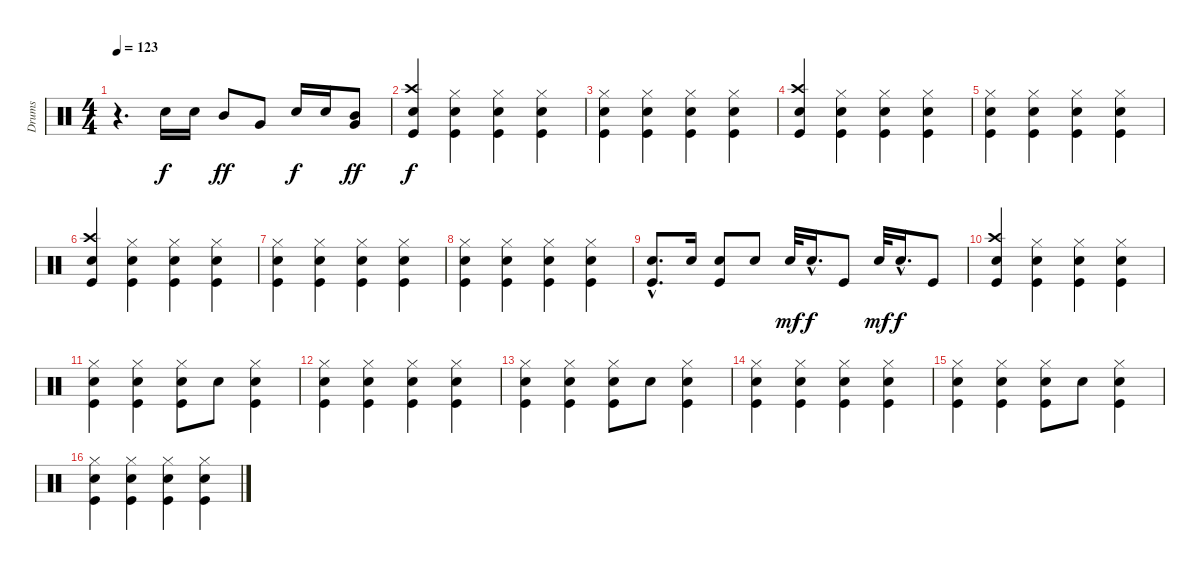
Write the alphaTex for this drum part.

\track ("Drums" "Drums") {instrument percussion}
\staff {score}
\articulation defaults
\ts (4 4)
\tempo 123
\clef neutral
\ks c
r.4{d dy f} "Electric Snare (hit)".16 "Electric Snare (hit)".16 "Mid Tom (hit)".8{dy ff} "Very Low Tom (hit)".8 "Electric Snare (hit)".16{dy f} "Electric Snare (hit)".16 ("Mid Tom (hit)" "Very Low Tom (hit)").8{dy ff} |
("Crash high (hit)" "Kick (hit)" "Electric Snare (hit)").4{dy f} ("Hi-Hat (closed)" "Kick (hit)" "Electric Snare (hit)").4 ("Hi-Hat (closed)" "Kick (hit)" "Electric Snare (hit)").4 ("Hi-Hat (closed)" "Kick (hit)" "Electric Snare (hit)").4 |
("Kick (hit)" "Electric Snare (hit)" "Hi-Hat (closed)").4 ("Kick (hit)" "Electric Snare (hit)" "Hi-Hat (closed)").4 ("Kick (hit)" "Electric Snare (hit)" "Hi-Hat (closed)").4 ("Kick (hit)" "Electric Snare (hit)" "Hi-Hat (closed)").4 |
("Crash high (hit)" "Kick (hit)" "Electric Snare (hit)").4 ("Hi-Hat (closed)" "Kick (hit)" "Electric Snare (hit)").4 ("Hi-Hat (closed)" "Kick (hit)" "Electric Snare (hit)").4 ("Hi-Hat (closed)" "Kick (hit)" "Electric Snare (hit)").4 |
("Kick (hit)" "Electric Snare (hit)" "Hi-Hat (closed)").4 ("Kick (hit)" "Electric Snare (hit)" "Hi-Hat (closed)").4 ("Kick (hit)" "Electric Snare (hit)" "Hi-Hat (closed)").4 ("Kick (hit)" "Electric Snare (hit)" "Hi-Hat (closed)").4 |
("Crash high (hit)" "Kick (hit)" "Electric Snare (hit)").4 ("Hi-Hat (closed)" "Kick (hit)" "Electric Snare (hit)").4 ("Hi-Hat (closed)" "Kick (hit)" "Electric Snare (hit)").4 ("Hi-Hat (closed)" "Kick (hit)" "Electric Snare (hit)").4 |
("Kick (hit)" "Electric Snare (hit)" "Hi-Hat (closed)").4 ("Kick (hit)" "Electric Snare (hit)" "Hi-Hat (closed)").4 ("Kick (hit)" "Electric Snare (hit)" "Hi-Hat (closed)").4 ("Kick (hit)" "Electric Snare (hit)" "Hi-Hat (closed)").4 |
("Kick (hit)" "Electric Snare (hit)" "Hi-Hat (closed)").4 ("Kick (hit)" "Electric Snare (hit)" "Hi-Hat (closed)").4 ("Kick (hit)" "Electric Snare (hit)" "Hi-Hat (closed)").4 ("Kick (hit)" "Electric Snare (hit)" "Hi-Hat (closed)").4 |
("Kick (hit)"{hac} "Electric Snare (hit)"{hac}).8{d} "Electric Snare (hit)".16 ("Kick (hit)" "Electric Snare (hit)").8 "Electric Snare (hit)".8 "Electric Snare (hit)".32{dy mf} "Electric Snare (hit)"{hac}.16{d dy f} "Kick (hit)".8 "Electric Snare (hit)".32{dy mf} "Electric Snare (hit)"{hac}.16{d dy f} "Kick (hit)".8 |
("Crash high (hit)" "Kick (hit)" "Electric Snare (hit)").4 ("Hi-Hat (closed)" "Kick (hit)" "Electric Snare (hit)").4 ("Hi-Hat (closed)" "Kick (hit)" "Electric Snare (hit)").4 ("Hi-Hat (closed)" "Kick (hit)" "Electric Snare (hit)").4 |
("Electric Snare (hit)" "Kick (hit)" "Hi-Hat (closed)").4 ("Kick (hit)" "Electric Snare (hit)" "Hi-Hat (closed)").4 ("Kick (hit)" "Electric Snare (hit)" "Hi-Hat (closed)").8 "Electric Snare (hit)".8 ("Kick (hit)" "Electric Snare (hit)" "Hi-Hat (closed)").4 |
("Kick (hit)" "Electric Snare (hit)" "Hi-Hat (closed)").4 ("Kick (hit)" "Electric Snare (hit)" "Hi-Hat (closed)").4 ("Kick (hit)" "Electric Snare (hit)" "Hi-Hat (closed)").4 ("Kick (hit)" "Electric Snare (hit)" "Hi-Hat (closed)").4 |
("Electric Snare (hit)" "Kick (hit)" "Hi-Hat (closed)").4 ("Kick (hit)" "Electric Snare (hit)" "Hi-Hat (closed)").4 ("Kick (hit)" "Electric Snare (hit)" "Hi-Hat (closed)").8 "Electric Snare (hit)".8 ("Kick (hit)" "Electric Snare (hit)" "Hi-Hat (closed)").4 |
("Kick (hit)" "Electric Snare (hit)" "Hi-Hat (closed)").4 ("Kick (hit)" "Electric Snare (hit)" "Hi-Hat (closed)").4 ("Kick (hit)" "Electric Snare (hit)" "Hi-Hat (closed)").4 ("Kick (hit)" "Electric Snare (hit)" "Hi-Hat (closed)").4 |
("Electric Snare (hit)" "Kick (hit)" "Hi-Hat (closed)").4 ("Kick (hit)" "Electric Snare (hit)" "Hi-Hat (closed)").4 ("Kick (hit)" "Electric Snare (hit)" "Hi-Hat (closed)").8 "Electric Snare (hit)".8 ("Kick (hit)" "Electric Snare (hit)" "Hi-Hat (closed)").4 |
("Kick (hit)" "Electric Snare (hit)" "Hi-Hat (closed)").4 ("Kick (hit)" "Electric Snare (hit)" "Hi-Hat (closed)").4 ("Kick (hit)" "Electric Snare (hit)" "Hi-Hat (closed)").4 ("Kick (hit)" "Electric Snare (hit)" "Hi-Hat (closed)").4
